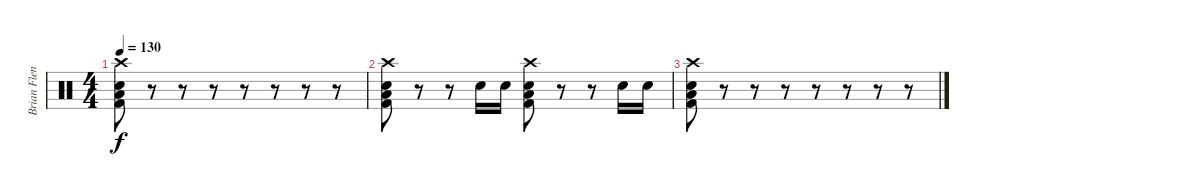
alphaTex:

\track ("Brian Flenniken" "Brian Flen") {instrument percussion}
\staff {score}
\articulation defaults
\ts (4 4)
\tempo 130
\clef neutral
\ks c
("Crash high (hit)" "Low Floor Tom (hit)" "Snare (hit) 2" "Kick (hit) 2").8{dy f} r.8 r.8 r.8 r.8 r.8 r.8 r.8 |
("Crash high (hit)" "Low Floor Tom (hit)" "Snare (hit) 2" "Kick (hit) 2").8 r.8 r.8 "Snare (hit) 2".16 "Snare (hit) 2".16 ("Crash high (hit)" "Low Floor Tom (hit)" "Snare (hit) 2" "Kick (hit) 2").8 r.8 r.8 "Snare (hit) 2".16 "Snare (hit) 2".16 |
("Crash high (hit)" "Low Floor Tom (hit)" "Snare (hit) 2" "Kick (hit) 2").8 r.8 r.8 r.8 r.8 r.8 r.8 r.8
